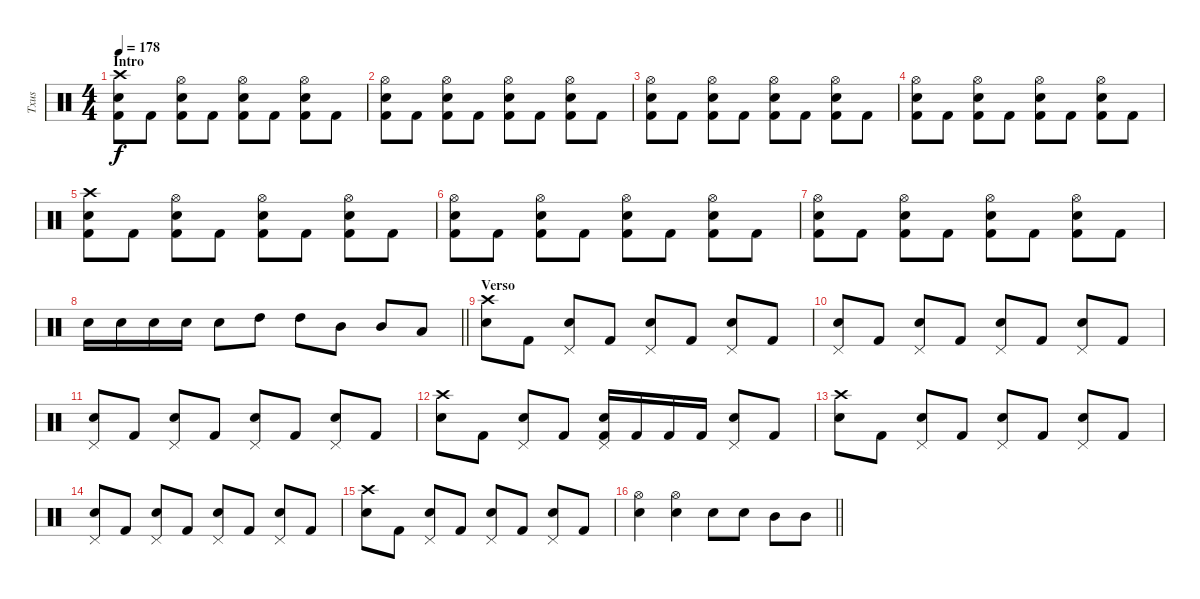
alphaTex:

\track ("Txus" "Txus") {instrument percussion}
\staff {score}
\articulation defaults
\ts (4 4)
\section ("" "Intro")
\tempo 178
\clef neutral
\ks c
("Crash high (hit)" "Electric Snare (hit)" "Kick (hit) 2").8{dy f} "Kick (hit) 2".8 ("Hi-Hat (open)" "Electric Snare (hit)" "Kick (hit) 2").8 "Kick (hit) 2".8 ("Hi-Hat (open)" "Electric Snare (hit)" "Kick (hit) 2").8 "Kick (hit) 2".8 ("Hi-Hat (open)" "Electric Snare (hit)" "Kick (hit) 2").8 "Kick (hit) 2".8 |
("Hi-Hat (open)" "Electric Snare (hit)" "Kick (hit) 2").8 "Kick (hit) 2".8 ("Hi-Hat (open)" "Electric Snare (hit)" "Kick (hit) 2").8 "Kick (hit) 2".8 ("Hi-Hat (open)" "Electric Snare (hit)" "Kick (hit) 2").8 "Kick (hit) 2".8 ("Hi-Hat (open)" "Electric Snare (hit)" "Kick (hit) 2").8 "Kick (hit) 2".8 |
("Hi-Hat (open)" "Electric Snare (hit)" "Kick (hit) 2").8 "Kick (hit) 2".8 ("Hi-Hat (open)" "Electric Snare (hit)" "Kick (hit) 2").8 "Kick (hit) 2".8 ("Hi-Hat (open)" "Electric Snare (hit)" "Kick (hit) 2").8 "Kick (hit) 2".8 ("Hi-Hat (open)" "Electric Snare (hit)" "Kick (hit) 2").8 "Kick (hit) 2".8 |
("Hi-Hat (open)" "Electric Snare (hit)" "Kick (hit) 2").8 "Kick (hit) 2".8 ("Hi-Hat (open)" "Electric Snare (hit)" "Kick (hit) 2").8 "Kick (hit) 2".8 ("Hi-Hat (open)" "Electric Snare (hit)" "Kick (hit) 2").8 "Kick (hit) 2".8 ("Hi-Hat (open)" "Electric Snare (hit)" "Kick (hit) 2").8 "Kick (hit) 2".8 |
("Crash high (hit)" "Electric Snare (hit)" "Kick (hit) 2").8 "Kick (hit) 2".8 ("Hi-Hat (open)" "Electric Snare (hit)" "Kick (hit) 2").8 "Kick (hit) 2".8 ("Hi-Hat (open)" "Electric Snare (hit)" "Kick (hit) 2").8 "Kick (hit) 2".8 ("Hi-Hat (open)" "Electric Snare (hit)" "Kick (hit) 2").8 "Kick (hit) 2".8 |
("Hi-Hat (open)" "Electric Snare (hit)" "Kick (hit) 2").8 "Kick (hit) 2".8 ("Hi-Hat (open)" "Electric Snare (hit)" "Kick (hit) 2").8 "Kick (hit) 2".8 ("Hi-Hat (open)" "Electric Snare (hit)" "Kick (hit) 2").8 "Kick (hit) 2".8 ("Hi-Hat (open)" "Electric Snare (hit)" "Kick (hit) 2").8 "Kick (hit) 2".8 |
("Hi-Hat (open)" "Electric Snare (hit)" "Kick (hit) 2").8 "Kick (hit) 2".8 ("Hi-Hat (open)" "Electric Snare (hit)" "Kick (hit) 2").8 "Kick (hit) 2".8 ("Hi-Hat (open)" "Electric Snare (hit)" "Kick (hit) 2").8 "Kick (hit) 2".8 ("Hi-Hat (open)" "Electric Snare (hit)" "Kick (hit) 2").8 "Kick (hit) 2".8 |
\barLineRight lightlight "Electric Snare (hit)".16 "Electric Snare (hit)".16 "Electric Snare (hit)".16 "Electric Snare (hit)".16 "Electric Snare (hit)".8 "High Tom (hit)".8 "High Tom (hit)".8 "Mid Tom (hit)".8 "Mid Tom (hit)".8 "Low Tom (hit)".8
|
\section ("" "Verso")
("Crash high (hit)" "Electric Snare (hit)").8 "Kick (hit) 2".8 ("Pedal Hi-Hat (hit)" "Electric Snare (hit)").8 "Kick (hit) 2".8 ("Pedal Hi-Hat (hit)" "Electric Snare (hit)").8 "Kick (hit) 2".8 ("Pedal Hi-Hat (hit)" "Electric Snare (hit)").8 "Kick (hit) 2".8 |
("Pedal Hi-Hat (hit)" "Electric Snare (hit)").8 "Kick (hit) 2".8 ("Pedal Hi-Hat (hit)" "Electric Snare (hit)").8 "Kick (hit) 2".8 ("Pedal Hi-Hat (hit)" "Electric Snare (hit)").8 "Kick (hit) 2".8 ("Pedal Hi-Hat (hit)" "Electric Snare (hit)").8 "Kick (hit) 2".8 |
("Pedal Hi-Hat (hit)" "Electric Snare (hit)").8 "Kick (hit) 2".8 ("Pedal Hi-Hat (hit)" "Electric Snare (hit)").8 "Kick (hit) 2".8 ("Pedal Hi-Hat (hit)" "Electric Snare (hit)").8 "Kick (hit) 2".8 ("Pedal Hi-Hat (hit)" "Electric Snare (hit)").8 "Kick (hit) 2".8 |
("Crash high (hit)" "Electric Snare (hit)").8 "Kick (hit) 2".8 ("Pedal Hi-Hat (hit)" "Electric Snare (hit)").8 "Kick (hit) 2".8 ("Pedal Hi-Hat (hit)" "Electric Snare (hit)" "Kick (hit) 2").16 "Kick (hit) 2".16 "Kick (hit) 2".16 "Kick (hit) 2".16 ("Pedal Hi-Hat (hit)" "Electric Snare (hit)").8 "Kick (hit) 2".8 |
("Crash high (hit)" "Electric Snare (hit)").8 "Kick (hit) 2".8 ("Pedal Hi-Hat (hit)" "Electric Snare (hit)").8 "Kick (hit) 2".8 ("Pedal Hi-Hat (hit)" "Electric Snare (hit)").8 "Kick (hit) 2".8 ("Pedal Hi-Hat (hit)" "Electric Snare (hit)").8 "Kick (hit) 2".8 |
("Pedal Hi-Hat (hit)" "Electric Snare (hit)").8 "Kick (hit) 2".8 ("Pedal Hi-Hat (hit)" "Electric Snare (hit)").8 "Kick (hit) 2".8 ("Pedal Hi-Hat (hit)" "Electric Snare (hit)").8 "Kick (hit) 2".8 ("Pedal Hi-Hat (hit)" "Electric Snare (hit)").8 "Kick (hit) 2".8 |
("Crash high (hit)" "Electric Snare (hit)").8 "Kick (hit) 2".8 ("Pedal Hi-Hat (hit)" "Electric Snare (hit)").8 "Kick (hit) 2".8 ("Pedal Hi-Hat (hit)" "Electric Snare (hit)").8 "Kick (hit) 2".8 ("Pedal Hi-Hat (hit)" "Electric Snare (hit)").8 "Kick (hit) 2".8 |
\barLineRight lightlight
("Hi-Hat (open)" "Electric Snare (hit)").4 ("Hi-Hat (open)" "Electric Snare (hit)").4 "Electric Snare (hit)".8 "Electric Snare (hit)".8 "Mid Tom (hit)".8 "Mid Tom (hit)".8
